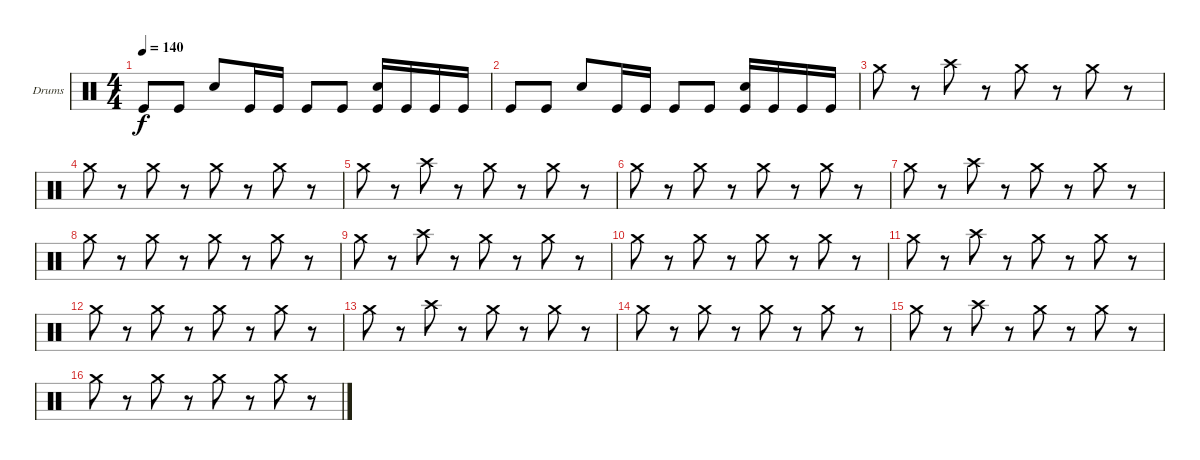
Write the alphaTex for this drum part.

\defaultSystemsLayout 4
\bracketExtendMode groupsimilarinstruments
\firstSystemTrackNameOrientation horizontal
\otherSystemsTrackNameOrientation horizontal
\track ("Drumkit" "Drums") {instrument percussion}
\staff {score}
\articulation defaults
\ts (4 4)
\tempo 140
\clef neutral
\ks c "Kick (hit)".8{dy f} "Kick (hit)".8 "Snare (hit) 2".8 "Kick (hit)".16 "Kick (hit)".16 "Kick (hit)".8 "Kick (hit)".8
("Kick (hit)" "Snare (hit) 2").16 "Kick (hit)".16 "Kick (hit)".16 "Kick (hit)".16 |
"Kick (hit)".8 "Kick (hit)".8 "Snare (hit) 2".8 "Kick (hit)".16 "Kick (hit)".16 "Kick (hit)".8 "Kick (hit)".8 ("Kick (hit)" "Snare (hit) 2").16 "Kick (hit)".16 "Kick (hit)".16 "Kick (hit)".16 |
"Crash medium (hit)".8 r.8 "Crash high (hit)".8 r.8 "Crash medium (hit)".8 r.8 "Crash medium (hit)".8 r.8 |
"Crash medium (hit)".8 r.8 "Crash medium (hit)".8 r.8 "Crash medium (hit)".8 r.8 "Crash medium (hit)".8 r.8 |
"Crash medium (hit)".8 r.8 "Crash high (hit)".8 r.8 "Crash medium (hit)".8 r.8 "Crash medium (hit)".8 r.8 |
"Crash medium (hit)".8 r.8 "Crash medium (hit)".8 r.8 "Crash medium (hit)".8 r.8 "Crash medium (hit)".8 r.8 |
"Crash medium (hit)".8 r.8 "Crash high (hit)".8 r.8 "Crash medium (hit)".8 r.8 "Crash medium (hit)".8 r.8 |
"Crash medium (hit)".8 r.8 "Crash medium (hit)".8 r.8 "Crash medium (hit)".8 r.8 "Crash medium (hit)".8 r.8 |
"Crash medium (hit)".8 r.8 "Crash high (hit)".8 r.8 "Crash medium (hit)".8 r.8 "Crash medium (hit)".8 r.8 |
"Crash medium (hit)".8 r.8 "Crash medium (hit)".8 r.8 "Crash medium (hit)".8 r.8 "Crash medium (hit)".8 r.8 |
"Crash medium (hit)".8 r.8 "Crash high (hit)".8 r.8 "Crash medium (hit)".8 r.8 "Crash medium (hit)".8 r.8 |
"Crash medium (hit)".8 r.8 "Crash medium (hit)".8 r.8 "Crash medium (hit)".8 r.8 "Crash medium (hit)".8 r.8 |
"Crash medium (hit)".8 r.8 "Crash high (hit)".8 r.8 "Crash medium (hit)".8 r.8 "Crash medium (hit)".8 r.8 |
"Crash medium (hit)".8 r.8 "Crash medium (hit)".8 r.8 "Crash medium (hit)".8 r.8 "Crash medium (hit)".8 r.8 |
"Crash medium (hit)".8 r.8 "Crash high (hit)".8 r.8 "Crash medium (hit)".8 r.8 "Crash medium (hit)".8 r.8 |
"Crash medium (hit)".8 r.8 "Crash medium (hit)".8 r.8 "Crash medium (hit)".8 r.8 "Crash medium (hit)".8 r.8
